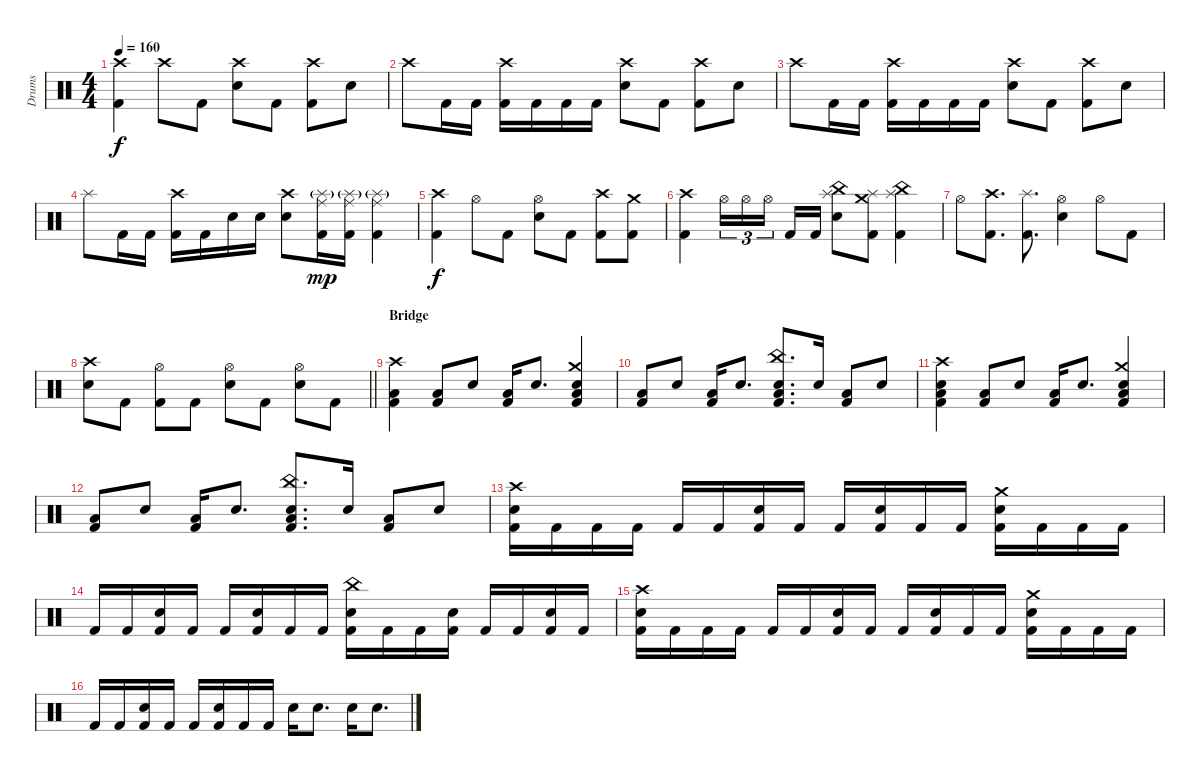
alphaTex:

\track ("Drums" "Drums") {instrument percussion}
\staff {score}
\articulation defaults
\ts (4 4)
\tempo 160
\clef neutral
\ks c
("Crash high (hit)" "Kick (hit) 2").4{dy f} "Crash high (hit)".8 "Kick (hit) 2".8 ("Crash high (hit)" "Electric Snare (hit)").8 "Kick (hit) 2".8 ("Crash high (hit)" "Kick (hit) 2").8 "Electric Snare (hit)".8 |
"Crash high (hit)".8 "Kick (hit) 2".16 "Kick (hit) 2".16 ("Crash high (hit)" "Kick (hit) 2").16 "Kick (hit) 2".16 "Kick (hit) 2".16 "Kick (hit) 2".16 ("Crash high (hit)" "Electric Snare (hit)").8 "Kick (hit) 2".8 ("Crash high (hit)" "Kick (hit) 2").8 "Electric Snare (hit)".8 |
"Crash high (hit)".8 "Kick (hit) 2".16 "Kick (hit) 2".16 ("Crash high (hit)" "Kick (hit) 2").16 "Kick (hit) 2".16 "Kick (hit) 2".16 "Kick (hit) 2".16 ("Crash high (hit)" "Electric Snare (hit)").8 "Kick (hit) 2".8 ("Crash high (hit)" "Kick (hit) 2").8 "Electric Snare (hit)".8 |
"Splash (hit)".8 "Kick (hit) 2".16 "Kick (hit) 2".16 ("Crash high (hit)" "Kick (hit) 2").16 "Kick (hit) 2".16 "Electric Snare (hit)".16 "Electric Snare (hit)".16 ("Crash high (hit)" "Electric Snare (hit)").8 ("Splash (hit)"{g} "Ride (middle)" "Kick (hit) 2").16{dy mp} ("Splash (hit)"{g} "Ride (middle)" "Kick (hit) 2").16 ("Splash (hit)"{g} "Ride (middle)" "Kick (hit) 2").4 |
("Crash high (hit)" "Kick (hit) 2").4{dy f} "Hi-Hat (open)".8 "Kick (hit) 2".8 ("Hi-Hat (open)" "Electric Snare (hit)").8 "Kick (hit) 2".8 ("Crash high (hit)" "Kick (hit) 2").8 ("Crash medium (hit)" "Kick (hit) 2").8 |
("Crash high (hit)" "Kick (hit) 2").4 "Hi-Hat (open)".16{tu (3 2)} "Hi-Hat (open)".16{tu (3 2)} "Hi-Hat (open)".16{tu (3 2)} "Kick (hit) 2".16 "Kick (hit) 2".16 ("China (hit)" "Splash (hit)" "Electric Snare (hit)").8 ("Crash medium (hit)" "Splash (hit)" "Kick (hit) 2").8 ("China (hit)" "Splash (hit)" "Kick (hit) 2").4 |
"Hi-Hat (open)".8 ("Crash high (hit)" "Kick (hit) 2").8{d} ("Splash (hit)" "Kick (hit) 2").8{d} ("Hi-Hat (open)" "Electric Snare (hit)").4 "Hi-Hat (open)".8 "Kick (hit) 2".8 |
\barLineRight lightlight
("Crash high (hit)" "Electric Snare (hit)").8 "Kick (hit) 2".8 ("Hi-Hat (open)" "Kick (hit) 2").8 "Kick (hit) 2".8 ("Hi-Hat (open)" "Electric Snare (hit)").8 "Kick (hit) 2".8 ("Hi-Hat (open)" "Electric Snare (hit)").8 "Kick (hit) 2".8 |
\section ("" "Bridge")
("Crash high (hit)" "Low Floor Tom (hit)" "Kick (hit) 2").4 ("Low Floor Tom (hit)" "Kick (hit) 2").8 "Electric Snare (hit)".8 ("Low Floor Tom (hit)" "Kick (hit) 2").16 "Electric Snare (hit)".8{d} ("Crash medium (hit)" "Electric Snare (hit)" "Low Floor Tom (hit)" "Kick (hit) 2").4 |
("Low Floor Tom (hit)" "Kick (hit) 2").8 "Electric Snare (hit)".8 ("Low Floor Tom (hit)" "Kick (hit) 2").16 "Electric Snare (hit)".8{d} ("China (hit)" "Electric Snare (hit)" "Low Floor Tom (hit)" "Kick (hit) 2").8{d} "Electric Snare (hit)".16 ("Low Floor Tom (hit)" "Kick (hit) 2").8 "Electric Snare (hit)".8 |
("Crash high (hit)" "Electric Snare (hit)" "Low Floor Tom (hit)" "Kick (hit) 2").4 ("Low Floor Tom (hit)" "Kick (hit) 2").8 "Electric Snare (hit)".8 ("Low Floor Tom (hit)" "Kick (hit) 2").16 "Electric Snare (hit)".8{d} ("Crash medium (hit)" "Electric Snare (hit)" "Low Floor Tom (hit)" "Kick (hit) 2").4 |
("Low Floor Tom (hit)" "Kick (hit) 2").8 "Electric Snare (hit)".8 ("Low Floor Tom (hit)" "Kick (hit) 2").16 "Electric Snare (hit)".8{d} ("China (hit)" "Electric Snare (hit)" "Low Floor Tom (hit)" "Kick (hit) 2").8{d} "Electric Snare (hit)".16 ("Low Floor Tom (hit)" "Kick (hit) 2").8 "Electric Snare (hit)".8 |
("Crash high (hit)" "Electric Snare (hit)" "Kick (hit) 2").16 "Kick (hit) 2".16 "Kick (hit) 2".16 "Kick (hit) 2".16 "Kick (hit) 2".16 "Kick (hit) 2".16 ("Electric Snare (hit)" "Kick (hit) 2").16 "Kick (hit) 2".16 "Kick (hit) 2".16 ("Electric Snare (hit)" "Kick (hit) 2").16 "Kick (hit) 2".16 "Kick (hit) 2".16 ("Crash medium (hit)" "Electric Snare (hit)" "Kick (hit) 2").16 "Kick (hit) 2".16 "Kick (hit) 2".16 "Kick (hit) 2".16 |
"Kick (hit) 2".16 "Kick (hit) 2".16 ("Electric Snare (hit)" "Kick (hit) 2").16 "Kick (hit) 2".16 "Kick (hit) 2".16 ("Electric Snare (hit)" "Kick (hit) 2").16 "Kick (hit) 2".16 "Kick (hit) 2".16 ("China (hit)" "Electric Snare (hit)" "Kick (hit) 2").16 "Kick (hit) 2".16 "Kick (hit) 2".16 ("Electric Snare (hit)" "Kick (hit) 2").16 "Kick (hit) 2".16 "Kick (hit) 2".16 ("Electric Snare (hit)" "Kick (hit) 2").16 "Kick (hit) 2".16 |
("Crash high (hit)" "Electric Snare (hit)" "Kick (hit) 2").16 "Kick (hit) 2".16 "Kick (hit) 2".16 "Kick (hit) 2".16 "Kick (hit) 2".16 "Kick (hit) 2".16 ("Electric Snare (hit)" "Kick (hit) 2").16 "Kick (hit) 2".16 "Kick (hit) 2".16 ("Electric Snare (hit)" "Kick (hit) 2").16 "Kick (hit) 2".16 "Kick (hit) 2".16 ("Crash medium (hit)" "Electric Snare (hit)" "Kick (hit) 2").16 "Kick (hit) 2".16 "Kick (hit) 2".16 "Kick (hit) 2".16 |
"Kick (hit) 2".16 "Kick (hit) 2".16 ("Electric Snare (hit)" "Kick (hit) 2").16 "Kick (hit) 2".16 "Kick (hit) 2".16 ("Electric Snare (hit)" "Kick (hit) 2").16 "Kick (hit) 2".16 "Kick (hit) 2".16 "Electric Snare (hit)".16 "Electric Snare (hit)".8{d} "Electric Snare (hit)".16 "Electric Snare (hit)".8{d}
